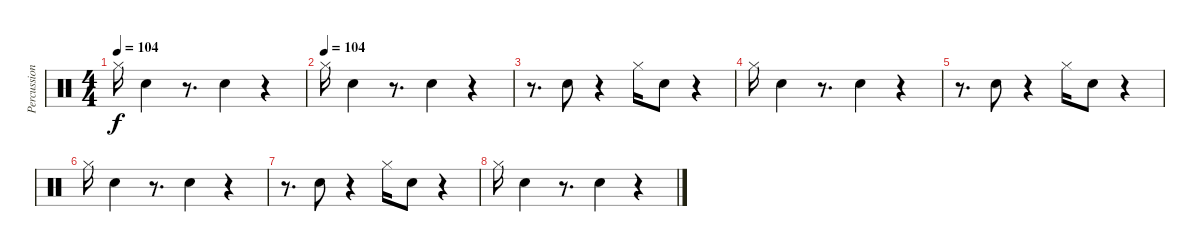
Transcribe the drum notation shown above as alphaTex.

\track ("Percussion(By Bela B.)" "Percussion") {instrument percussion}
\staff {score}
\articulation defaults
\ts (4 4)
\tempo 104
\clef neutral
\ks c "Hi-Hat (closed)".16{dy f} "Electric Snare (hit)".4
r.8{d} "Electric Snare (hit)".4 r.4 |
\tempo (104)
"Hi-Hat (closed)".16 "Electric Snare (hit)".4 r.8{d} "Electric Snare (hit)".4 r.4 |
r.8{d} "Electric Snare (hit)".8 r.4 "Hi-Hat (closed)".16 "Electric Snare (hit)".8 r.4 |
"Hi-Hat (closed)".16 "Electric Snare (hit)".4 r.8{d} "Electric Snare (hit)".4 r.4 |
r.8{d} "Electric Snare (hit)".8 r.4 "Hi-Hat (closed)".16 "Electric Snare (hit)".8 r.4 |
"Hi-Hat (closed)".16 "Electric Snare (hit)".4 r.8{d} "Electric Snare (hit)".4 r.4 |
r.8{d} "Electric Snare (hit)".8 r.4 "Hi-Hat (closed)".16 "Electric Snare (hit)".8 r.4 |
"Hi-Hat (closed)".16 "Electric Snare (hit)".4 r.8{d} "Electric Snare (hit)".4 r.4
